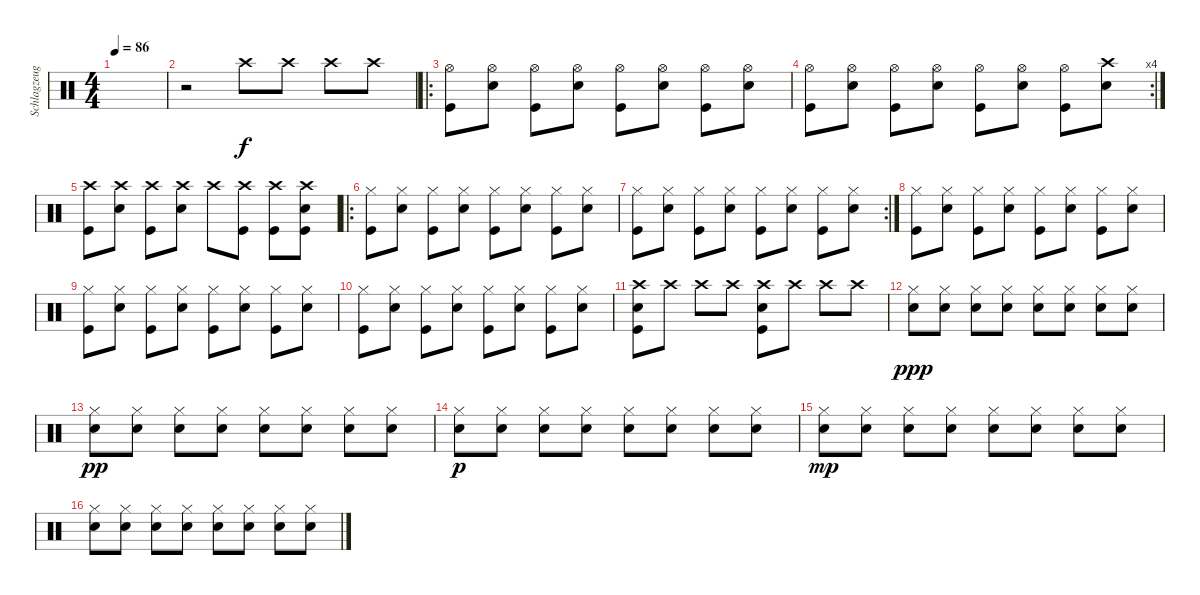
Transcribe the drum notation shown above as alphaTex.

\track ("Schlagzeug" "Schlagzeug") {instrument percussion}
\staff {score}
\articulation defaults
\ts (4 4)
\tempo 86
\clef neutral
\ks c
|
r.2 "Crash high (hit)".8 "Crash high (hit)".8 "Crash high (hit)".8 "Crash high (hit)".8 |
\ro
("Hi-Hat (open)" "Kick (hit)").8 ("Hi-Hat (open)" "Snare (hit) 2").8 ("Hi-Hat (open)" "Kick (hit)").8 ("Hi-Hat (open)" "Snare (hit) 2").8 ("Hi-Hat (open)" "Kick (hit)").8 ("Hi-Hat (open)" "Snare (hit) 2").8 ("Hi-Hat (open)" "Kick (hit)").8 ("Hi-Hat (open)" "Snare (hit) 2").8 |
\rc 4
("Hi-Hat (open)" "Kick (hit)").8 ("Hi-Hat (open)" "Snare (hit) 2").8 ("Hi-Hat (open)" "Kick (hit)").8 ("Hi-Hat (open)" "Snare (hit) 2").8 ("Hi-Hat (open)" "Kick (hit)").8 ("Hi-Hat (open)" "Snare (hit) 2").8 ("Hi-Hat (open)" "Kick (hit)").8 ("Crash high (hit)" "Snare (hit) 2").8 |
("Crash high (hit)" "Kick (hit)").8 ("Crash high (hit)" "Snare (hit) 2").8 ("Crash high (hit)" "Kick (hit)").8 ("Crash high (hit)" "Snare (hit) 2").8 "Crash high (hit)".8 ("Crash high (hit)" "Kick (hit)").8 ("Crash high (hit)" "Kick (hit)").8 ("Crash high (hit)" "Snare (hit) 2" "Kick (hit)").8 |
\ro
("Hi-Hat (closed)" "Kick (hit)").8 ("Hi-Hat (closed)" "Snare (hit) 2").8 ("Hi-Hat (closed)" "Kick (hit)").8 ("Hi-Hat (closed)" "Snare (hit) 2").8 ("Hi-Hat (closed)" "Kick (hit)").8 ("Hi-Hat (closed)" "Snare (hit) 2").8 ("Hi-Hat (closed)" "Kick (hit)").8 ("Hi-Hat (closed)" "Snare (hit) 2").8 |
\rc 2
("Hi-Hat (closed)" "Kick (hit)").8 ("Hi-Hat (closed)" "Snare (hit) 2").8 ("Hi-Hat (closed)" "Kick (hit)").8 ("Hi-Hat (closed)" "Snare (hit) 2").8 ("Hi-Hat (closed)" "Kick (hit)").8 ("Hi-Hat (closed)" "Snare (hit) 2").8 ("Hi-Hat (closed)" "Kick (hit)").8 ("Hi-Hat (closed)" "Snare (hit) 2").8 |
("Hi-Hat (closed)" "Kick (hit)").8 ("Hi-Hat (closed)" "Snare (hit) 2").8 ("Hi-Hat (closed)" "Kick (hit)").8 ("Hi-Hat (closed)" "Snare (hit) 2").8 ("Hi-Hat (closed)" "Kick (hit)").8 ("Hi-Hat (closed)" "Snare (hit) 2").8 ("Hi-Hat (closed)" "Kick (hit)").8 ("Hi-Hat (closed)" "Snare (hit) 2").8 |
("Hi-Hat (closed)" "Kick (hit)").8 ("Hi-Hat (closed)" "Snare (hit) 2").8 ("Hi-Hat (closed)" "Kick (hit)").8 ("Hi-Hat (closed)" "Snare (hit) 2").8 ("Hi-Hat (closed)" "Kick (hit)").8 ("Hi-Hat (closed)" "Snare (hit) 2").8 ("Hi-Hat (closed)" "Kick (hit)").8 ("Hi-Hat (closed)" "Snare (hit) 2").8 |
("Hi-Hat (closed)" "Kick (hit)").8 ("Hi-Hat (closed)" "Snare (hit) 2").8 ("Hi-Hat (closed)" "Kick (hit)").8 ("Hi-Hat (closed)" "Snare (hit) 2").8 ("Hi-Hat (closed)" "Kick (hit)").8 ("Hi-Hat (closed)" "Snare (hit) 2").8 ("Hi-Hat (closed)" "Kick (hit)").8 ("Hi-Hat (closed)" "Snare (hit) 2").8 |
("Crash high (hit)" "Snare (hit) 2" "Kick (hit)").8 "Crash high (hit)".8 "Crash high (hit)".8 "Crash high (hit)".8 ("Crash high (hit)" "Snare (hit) 2" "Kick (hit)").8 "Crash high (hit)".8 "Crash high (hit)".8 "Crash high (hit)".8 |
("Hi-Hat (closed)" "Snare (hit) 2").8{dy ppp} ("Hi-Hat (closed)" "Snare (hit) 2").8 ("Hi-Hat (closed)" "Snare (hit) 2").8 ("Hi-Hat (closed)" "Snare (hit) 2").8 ("Hi-Hat (closed)" "Snare (hit) 2").8 ("Hi-Hat (closed)" "Snare (hit) 2").8 ("Hi-Hat (closed)" "Snare (hit) 2").8 ("Hi-Hat (closed)" "Snare (hit) 2").8 |
("Hi-Hat (closed)" "Snare (hit) 2").8{dy pp} ("Hi-Hat (closed)" "Snare (hit) 2").8 ("Hi-Hat (closed)" "Snare (hit) 2").8 ("Hi-Hat (closed)" "Snare (hit) 2").8 ("Hi-Hat (closed)" "Snare (hit) 2").8 ("Hi-Hat (closed)" "Snare (hit) 2").8 ("Hi-Hat (closed)" "Snare (hit) 2").8 ("Hi-Hat (closed)" "Snare (hit) 2").8 |
("Hi-Hat (closed)" "Snare (hit) 2").8{dy p} ("Hi-Hat (closed)" "Snare (hit) 2").8 ("Hi-Hat (closed)" "Snare (hit) 2").8 ("Hi-Hat (closed)" "Snare (hit) 2").8 ("Hi-Hat (closed)" "Snare (hit) 2").8 ("Hi-Hat (closed)" "Snare (hit) 2").8 ("Hi-Hat (closed)" "Snare (hit) 2").8 ("Hi-Hat (closed)" "Snare (hit) 2").8 |
("Hi-Hat (closed)" "Snare (hit) 2").8{dy mp} ("Hi-Hat (closed)" "Snare (hit) 2").8 ("Hi-Hat (closed)" "Snare (hit) 2").8 ("Hi-Hat (closed)" "Snare (hit) 2").8 ("Hi-Hat (closed)" "Snare (hit) 2").8 ("Hi-Hat (closed)" "Snare (hit) 2").8 ("Hi-Hat (closed)" "Snare (hit) 2").8 ("Hi-Hat (closed)" "Snare (hit) 2").8 |
("Hi-Hat (closed)" "Snare (hit) 2").8 ("Hi-Hat (closed)" "Snare (hit) 2").8 ("Hi-Hat (closed)" "Snare (hit) 2").8 ("Hi-Hat (closed)" "Snare (hit) 2").8 ("Hi-Hat (closed)" "Snare (hit) 2").8 ("Hi-Hat (closed)" "Snare (hit) 2").8 ("Hi-Hat (closed)" "Snare (hit) 2").8 ("Hi-Hat (closed)" "Snare (hit) 2").8
